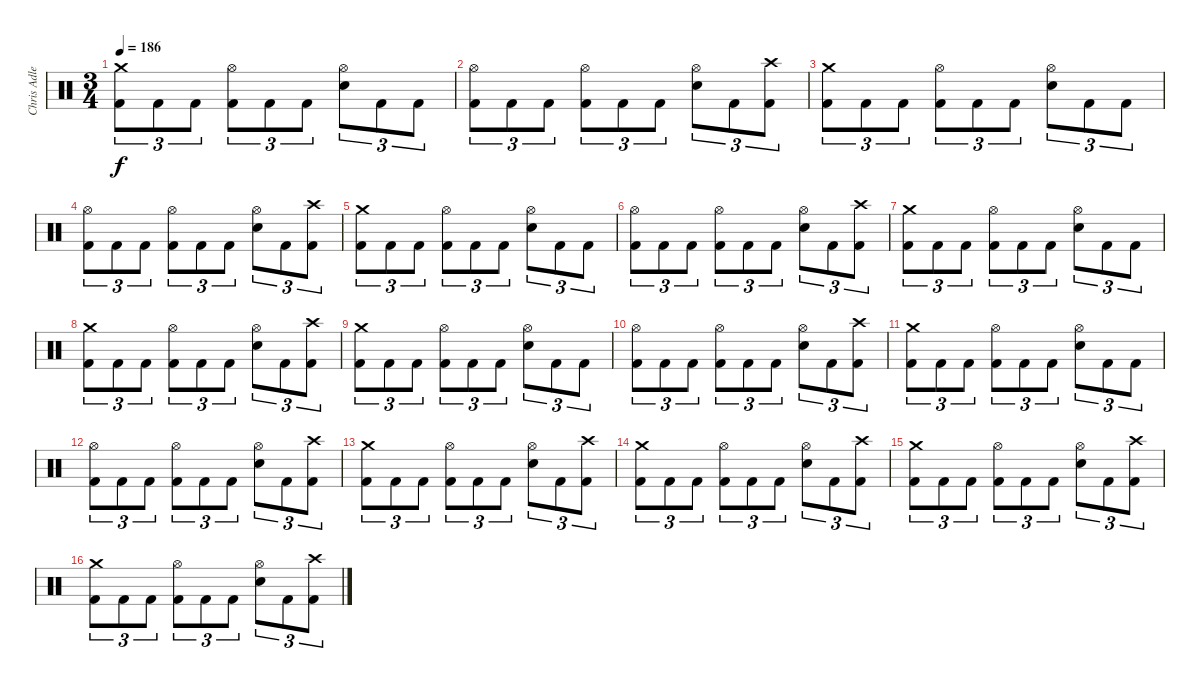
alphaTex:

\track ("Chris Adler" "Chris Adle") {instrument percussion}
\staff {score}
\articulation defaults
\ts (3 4)
\tempo 186
\clef neutral
\ks c
("Crash medium (hit)" "Kick (hit) 2").8{tu (3 2) dy f} "Kick (hit) 2".8{tu (3 2)} "Kick (hit) 2".8{tu (3 2)} ("Hi-Hat (open)" "Kick (hit) 2").8{tu (3 2)} "Kick (hit) 2".8{tu (3 2)} "Kick (hit) 2".8{tu (3 2)} ("Hi-Hat (open)" "Electric Snare (hit)").8{tu (3 2)} "Kick (hit) 2".8{tu (3 2)} "Kick (hit) 2".8{tu (3 2)} |
("Hi-Hat (open)" "Kick (hit) 2").8{tu (3 2)} "Kick (hit) 2".8{tu (3 2)} "Kick (hit) 2".8{tu (3 2)} ("Hi-Hat (open)" "Kick (hit) 2").8{tu (3 2)} "Kick (hit) 2".8{tu (3 2)} "Kick (hit) 2".8{tu (3 2)} ("Hi-Hat (open)" "Electric Snare (hit)").8{tu (3 2)} "Kick (hit) 2".8{tu (3 2)} ("Crash high (hit)" "Kick (hit) 2").8{tu (3 2)} |
("Crash medium (hit)" "Kick (hit) 2").8{tu (3 2)} "Kick (hit) 2".8{tu (3 2)} "Kick (hit) 2".8{tu (3 2)} ("Hi-Hat (open)" "Kick (hit) 2").8{tu (3 2)} "Kick (hit) 2".8{tu (3 2)} "Kick (hit) 2".8{tu (3 2)} ("Hi-Hat (open)" "Electric Snare (hit)").8{tu (3 2)} "Kick (hit) 2".8{tu (3 2)} "Kick (hit) 2".8{tu (3 2)} |
("Hi-Hat (open)" "Kick (hit) 2").8{tu (3 2)} "Kick (hit) 2".8{tu (3 2)} "Kick (hit) 2".8{tu (3 2)} ("Hi-Hat (open)" "Kick (hit) 2").8{tu (3 2)} "Kick (hit) 2".8{tu (3 2)} "Kick (hit) 2".8{tu (3 2)} ("Hi-Hat (open)" "Electric Snare (hit)").8{tu (3 2)} "Kick (hit) 2".8{tu (3 2)} ("Crash high (hit)" "Kick (hit) 2").8{tu (3 2)} |
("Crash medium (hit)" "Kick (hit) 2").8{tu (3 2)} "Kick (hit) 2".8{tu (3 2)} "Kick (hit) 2".8{tu (3 2)} ("Hi-Hat (open)" "Kick (hit) 2").8{tu (3 2)} "Kick (hit) 2".8{tu (3 2)} "Kick (hit) 2".8{tu (3 2)} ("Hi-Hat (open)" "Electric Snare (hit)").8{tu (3 2)} "Kick (hit) 2".8{tu (3 2)} "Kick (hit) 2".8{tu (3 2)} |
("Hi-Hat (open)" "Kick (hit) 2").8{tu (3 2)} "Kick (hit) 2".8{tu (3 2)} "Kick (hit) 2".8{tu (3 2)} ("Hi-Hat (open)" "Kick (hit) 2").8{tu (3 2)} "Kick (hit) 2".8{tu (3 2)} "Kick (hit) 2".8{tu (3 2)} ("Hi-Hat (open)" "Electric Snare (hit)").8{tu (3 2)} "Kick (hit) 2".8{tu (3 2)} ("Crash high (hit)" "Kick (hit) 2").8{tu (3 2)} |
("Crash medium (hit)" "Kick (hit) 2").8{tu (3 2)} "Kick (hit) 2".8{tu (3 2)} "Kick (hit) 2".8{tu (3 2)} ("Hi-Hat (open)" "Kick (hit) 2").8{tu (3 2)} "Kick (hit) 2".8{tu (3 2)} "Kick (hit) 2".8{tu (3 2)} ("Hi-Hat (open)" "Electric Snare (hit)").8{tu (3 2)} "Kick (hit) 2".8{tu (3 2)} "Kick (hit) 2".8{tu (3 2)} |
("Crash medium (hit)" "Kick (hit) 2").8{tu (3 2)} "Kick (hit) 2".8{tu (3 2)} "Kick (hit) 2".8{tu (3 2)} ("Hi-Hat (open)" "Kick (hit) 2").8{tu (3 2)} "Kick (hit) 2".8{tu (3 2)} "Kick (hit) 2".8{tu (3 2)} ("Hi-Hat (open)" "Electric Snare (hit)").8{tu (3 2)} "Kick (hit) 2".8{tu (3 2)} ("Crash high (hit)" "Kick (hit) 2").8{tu (3 2)} |
("Crash medium (hit)" "Kick (hit) 2").8{tu (3 2)} "Kick (hit) 2".8{tu (3 2)} "Kick (hit) 2".8{tu (3 2)} ("Hi-Hat (open)" "Kick (hit) 2").8{tu (3 2)} "Kick (hit) 2".8{tu (3 2)} "Kick (hit) 2".8{tu (3 2)} ("Hi-Hat (open)" "Electric Snare (hit)").8{tu (3 2)} "Kick (hit) 2".8{tu (3 2)} "Kick (hit) 2".8{tu (3 2)} |
("Hi-Hat (open)" "Kick (hit) 2").8{tu (3 2)} "Kick (hit) 2".8{tu (3 2)} "Kick (hit) 2".8{tu (3 2)} ("Hi-Hat (open)" "Kick (hit) 2").8{tu (3 2)} "Kick (hit) 2".8{tu (3 2)} "Kick (hit) 2".8{tu (3 2)} ("Hi-Hat (open)" "Electric Snare (hit)").8{tu (3 2)} "Kick (hit) 2".8{tu (3 2)} ("Crash high (hit)" "Kick (hit) 2").8{tu (3 2)} |
("Crash medium (hit)" "Kick (hit) 2").8{tu (3 2)} "Kick (hit) 2".8{tu (3 2)} "Kick (hit) 2".8{tu (3 2)} ("Hi-Hat (open)" "Kick (hit) 2").8{tu (3 2)} "Kick (hit) 2".8{tu (3 2)} "Kick (hit) 2".8{tu (3 2)} ("Hi-Hat (open)" "Electric Snare (hit)").8{tu (3 2)} "Kick (hit) 2".8{tu (3 2)} "Kick (hit) 2".8{tu (3 2)} |
("Hi-Hat (open)" "Kick (hit) 2").8{tu (3 2)} "Kick (hit) 2".8{tu (3 2)} "Kick (hit) 2".8{tu (3 2)} ("Hi-Hat (open)" "Kick (hit) 2").8{tu (3 2)} "Kick (hit) 2".8{tu (3 2)} "Kick (hit) 2".8{tu (3 2)} ("Hi-Hat (open)" "Electric Snare (hit)").8{tu (3 2)} "Kick (hit) 2".8{tu (3 2)} ("Crash high (hit)" "Kick (hit) 2").8{tu (3 2)} |
("Crash medium (hit)" "Kick (hit) 2").8{tu (3 2)} "Kick (hit) 2".8{tu (3 2)} "Kick (hit) 2".8{tu (3 2)} ("Hi-Hat (open)" "Kick (hit) 2").8{tu (3 2)} "Kick (hit) 2".8{tu (3 2)} "Kick (hit) 2".8{tu (3 2)} ("Hi-Hat (open)" "Electric Snare (hit)").8{tu (3 2)} "Kick (hit) 2".8{tu (3 2)} ("Crash high (hit)" "Kick (hit) 2").8{tu (3 2)} |
("Crash medium (hit)" "Kick (hit) 2").8{tu (3 2)} "Kick (hit) 2".8{tu (3 2)} "Kick (hit) 2".8{tu (3 2)} ("Hi-Hat (open)" "Kick (hit) 2").8{tu (3 2)} "Kick (hit) 2".8{tu (3 2)} "Kick (hit) 2".8{tu (3 2)} ("Hi-Hat (open)" "Electric Snare (hit)").8{tu (3 2)} "Kick (hit) 2".8{tu (3 2)} ("Crash high (hit)" "Kick (hit) 2").8{tu (3 2)} |
("Crash medium (hit)" "Kick (hit) 2").8{tu (3 2)} "Kick (hit) 2".8{tu (3 2)} "Kick (hit) 2".8{tu (3 2)} ("Hi-Hat (open)" "Kick (hit) 2").8{tu (3 2)} "Kick (hit) 2".8{tu (3 2)} "Kick (hit) 2".8{tu (3 2)} ("Hi-Hat (open)" "Electric Snare (hit)").8{tu (3 2)} "Kick (hit) 2".8{tu (3 2)} ("Crash high (hit)" "Kick (hit) 2").8{tu (3 2)} |
("Crash medium (hit)" "Kick (hit) 2").8{tu (3 2)} "Kick (hit) 2".8{tu (3 2)} "Kick (hit) 2".8{tu (3 2)} ("Hi-Hat (open)" "Kick (hit) 2").8{tu (3 2)} "Kick (hit) 2".8{tu (3 2)} "Kick (hit) 2".8{tu (3 2)} ("Hi-Hat (open)" "Electric Snare (hit)").8{tu (3 2)} "Kick (hit) 2".8{tu (3 2)} ("Crash high (hit)" "Kick (hit) 2").8{tu (3 2)}
